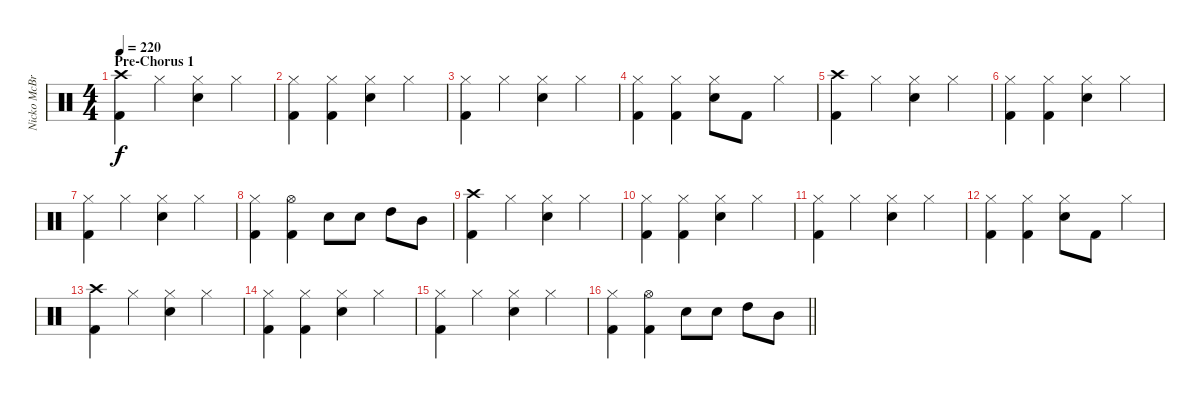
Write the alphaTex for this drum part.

\track ("Nicko McBrain" "Nicko McBr") {instrument percussion}
\staff {score}
\articulation defaults
\ts (4 4)
\section ("" "Pre-Chorus 1")
\tempo 220
\clef neutral
\ks c
("Crash high (hit)" "Kick (hit) 2").4{dy f} "Hi-Hat (closed)".4 ("Hi-Hat (closed)" "Electric Snare (hit)").4 "Hi-Hat (closed)".4 |
("Hi-Hat (closed)" "Kick (hit) 2").4 ("Hi-Hat (closed)" "Kick (hit) 2").4 ("Hi-Hat (closed)" "Electric Snare (hit)").4 "Hi-Hat (closed)".4 |
("Hi-Hat (closed)" "Kick (hit) 2").4 "Hi-Hat (closed)".4 ("Hi-Hat (closed)" "Electric Snare (hit)").4 "Hi-Hat (closed)".4 |
("Hi-Hat (closed)" "Kick (hit) 2").4 ("Hi-Hat (closed)" "Kick (hit) 2").4 ("Hi-Hat (closed)" "Electric Snare (hit)").8 "Kick (hit) 2".8 "Hi-Hat (closed)".4 |
("Crash high (hit)" "Kick (hit) 2").4 "Hi-Hat (closed)".4 ("Hi-Hat (closed)" "Electric Snare (hit)").4 "Hi-Hat (closed)".4 |
("Hi-Hat (closed)" "Kick (hit) 2").4 ("Hi-Hat (closed)" "Kick (hit) 2").4 ("Hi-Hat (closed)" "Electric Snare (hit)").4 "Hi-Hat (closed)".4 |
("Hi-Hat (closed)" "Kick (hit) 2").4 "Hi-Hat (closed)".4 ("Hi-Hat (closed)" "Electric Snare (hit)").4 "Hi-Hat (closed)".4 |
("Hi-Hat (closed)" "Kick (hit) 2").4 ("Hi-Hat (open)" "Kick (hit) 2").4 "Electric Snare (hit)".8 "Electric Snare (hit)".8 "High Tom (hit)".8 "Mid Tom (hit)".8 |
("Crash high (hit)" "Kick (hit) 2").4 "Hi-Hat (closed)".4 ("Hi-Hat (closed)" "Electric Snare (hit)").4 "Hi-Hat (closed)".4 |
("Hi-Hat (closed)" "Kick (hit) 2").4 ("Hi-Hat (closed)" "Kick (hit) 2").4 ("Hi-Hat (closed)" "Electric Snare (hit)").4 "Hi-Hat (closed)".4 |
("Hi-Hat (closed)" "Kick (hit) 2").4 "Hi-Hat (closed)".4 ("Hi-Hat (closed)" "Electric Snare (hit)").4 "Hi-Hat (closed)".4 |
("Hi-Hat (closed)" "Kick (hit) 2").4 ("Hi-Hat (closed)" "Kick (hit) 2").4 ("Hi-Hat (closed)" "Electric Snare (hit)").8 "Kick (hit) 2".8 "Hi-Hat (closed)".4 |
("Crash high (hit)" "Kick (hit) 2").4 "Hi-Hat (closed)".4 ("Hi-Hat (closed)" "Electric Snare (hit)").4 "Hi-Hat (closed)".4 |
("Hi-Hat (closed)" "Kick (hit) 2").4 ("Hi-Hat (closed)" "Kick (hit) 2").4 ("Hi-Hat (closed)" "Electric Snare (hit)").4 "Hi-Hat (closed)".4 |
("Hi-Hat (closed)" "Kick (hit) 2").4 "Hi-Hat (closed)".4 ("Hi-Hat (closed)" "Electric Snare (hit)").4 "Hi-Hat (closed)".4 |
\barLineRight lightlight
("Hi-Hat (closed)" "Kick (hit) 2").4 ("Hi-Hat (open)" "Kick (hit) 2").4 "Electric Snare (hit)".8 "Electric Snare (hit)".8 "High Tom (hit)".8 "Mid Tom (hit)".8
